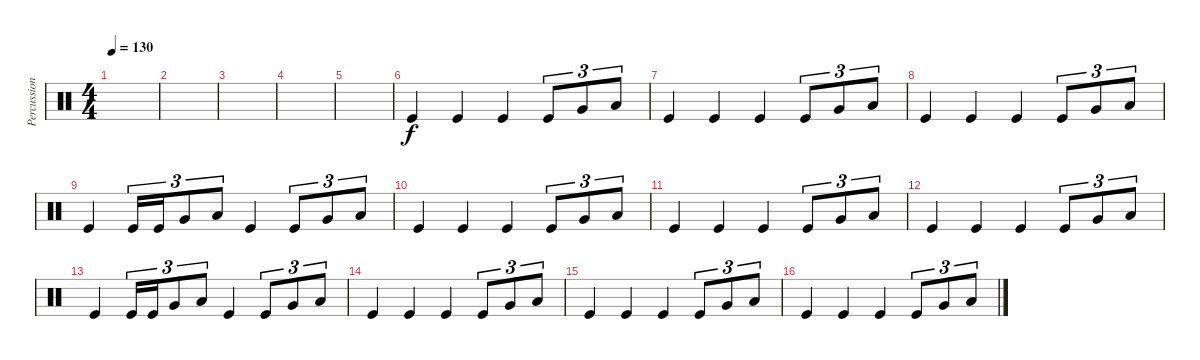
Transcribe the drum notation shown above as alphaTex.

\track ("Percussioni" "Percussion") {instrument percussion}
\staff {score}
\articulation defaults
\ts (4 4)
\tempo 130
\clef neutral
\ks c
|
|
|
|
|
"Kick (hit)".4 "Kick (hit)".4 "Kick (hit)".4 "Kick (hit)".8{tu (3 2)} "Very Low Tom (hit)".8{tu (3 2) balance 11} "Low Floor Tom (hit)".8{tu (3 2) balance 8} |
"Kick (hit)".4 "Kick (hit)".4 "Kick (hit)".4 "Kick (hit)".8{tu (3 2)} "Very Low Tom (hit)".8{tu (3 2) balance 11} "Low Floor Tom (hit)".8{tu (3 2) balance 8} |
"Kick (hit)".4 "Kick (hit)".4 "Kick (hit)".4 "Kick (hit)".8{tu (3 2)} "Very Low Tom (hit)".8{tu (3 2) balance 11} "Low Floor Tom (hit)".8{tu (3 2) balance 8} |
"Kick (hit)".4 "Kick (hit)".16{tu (3 2)} "Kick (hit)".16{tu (3 2)} "Very Low Tom (hit)".8{tu (3 2) balance 11} "Low Floor Tom (hit)".8{tu (3 2) balance 8} "Kick (hit)".4 "Kick (hit)".8{tu (3 2)} "Very Low Tom (hit)".8{tu (3 2) balance 11} "Low Floor Tom (hit)".8{tu (3 2) balance 8} |
"Kick (hit)".4 "Kick (hit)".4 "Kick (hit)".4 "Kick (hit)".8{tu (3 2)} "Very Low Tom (hit)".8{tu (3 2) balance 11} "Low Floor Tom (hit)".8{tu (3 2) balance 8} |
"Kick (hit)".4 "Kick (hit)".4 "Kick (hit)".4 "Kick (hit)".8{tu (3 2)} "Very Low Tom (hit)".8{tu (3 2) balance 11} "Low Floor Tom (hit)".8{tu (3 2) balance 8} |
"Kick (hit)".4 "Kick (hit)".4 "Kick (hit)".4 "Kick (hit)".8{tu (3 2)} "Very Low Tom (hit)".8{tu (3 2) balance 11} "Low Floor Tom (hit)".8{tu (3 2) balance 8} |
"Kick (hit)".4 "Kick (hit)".16{tu (3 2)} "Kick (hit)".16{tu (3 2)} "Very Low Tom (hit)".8{tu (3 2) balance 11} "Low Floor Tom (hit)".8{tu (3 2) balance 8} "Kick (hit)".4 "Kick (hit)".8{tu (3 2)} "Very Low Tom (hit)".8{tu (3 2) balance 11} "Low Floor Tom (hit)".8{tu (3 2) balance 8} |
"Kick (hit)".4 "Kick (hit)".4 "Kick (hit)".4 "Kick (hit)".8{tu (3 2)} "Very Low Tom (hit)".8{tu (3 2) balance 11} "Low Floor Tom (hit)".8{tu (3 2) balance 8} |
"Kick (hit)".4 "Kick (hit)".4 "Kick (hit)".4 "Kick (hit)".8{tu (3 2)} "Very Low Tom (hit)".8{tu (3 2) balance 11} "Low Floor Tom (hit)".8{tu (3 2) balance 8} |
"Kick (hit)".4 "Kick (hit)".4 "Kick (hit)".4 "Kick (hit)".8{tu (3 2)} "Very Low Tom (hit)".8{tu (3 2) balance 11} "Low Floor Tom (hit)".8{tu (3 2) balance 8}
